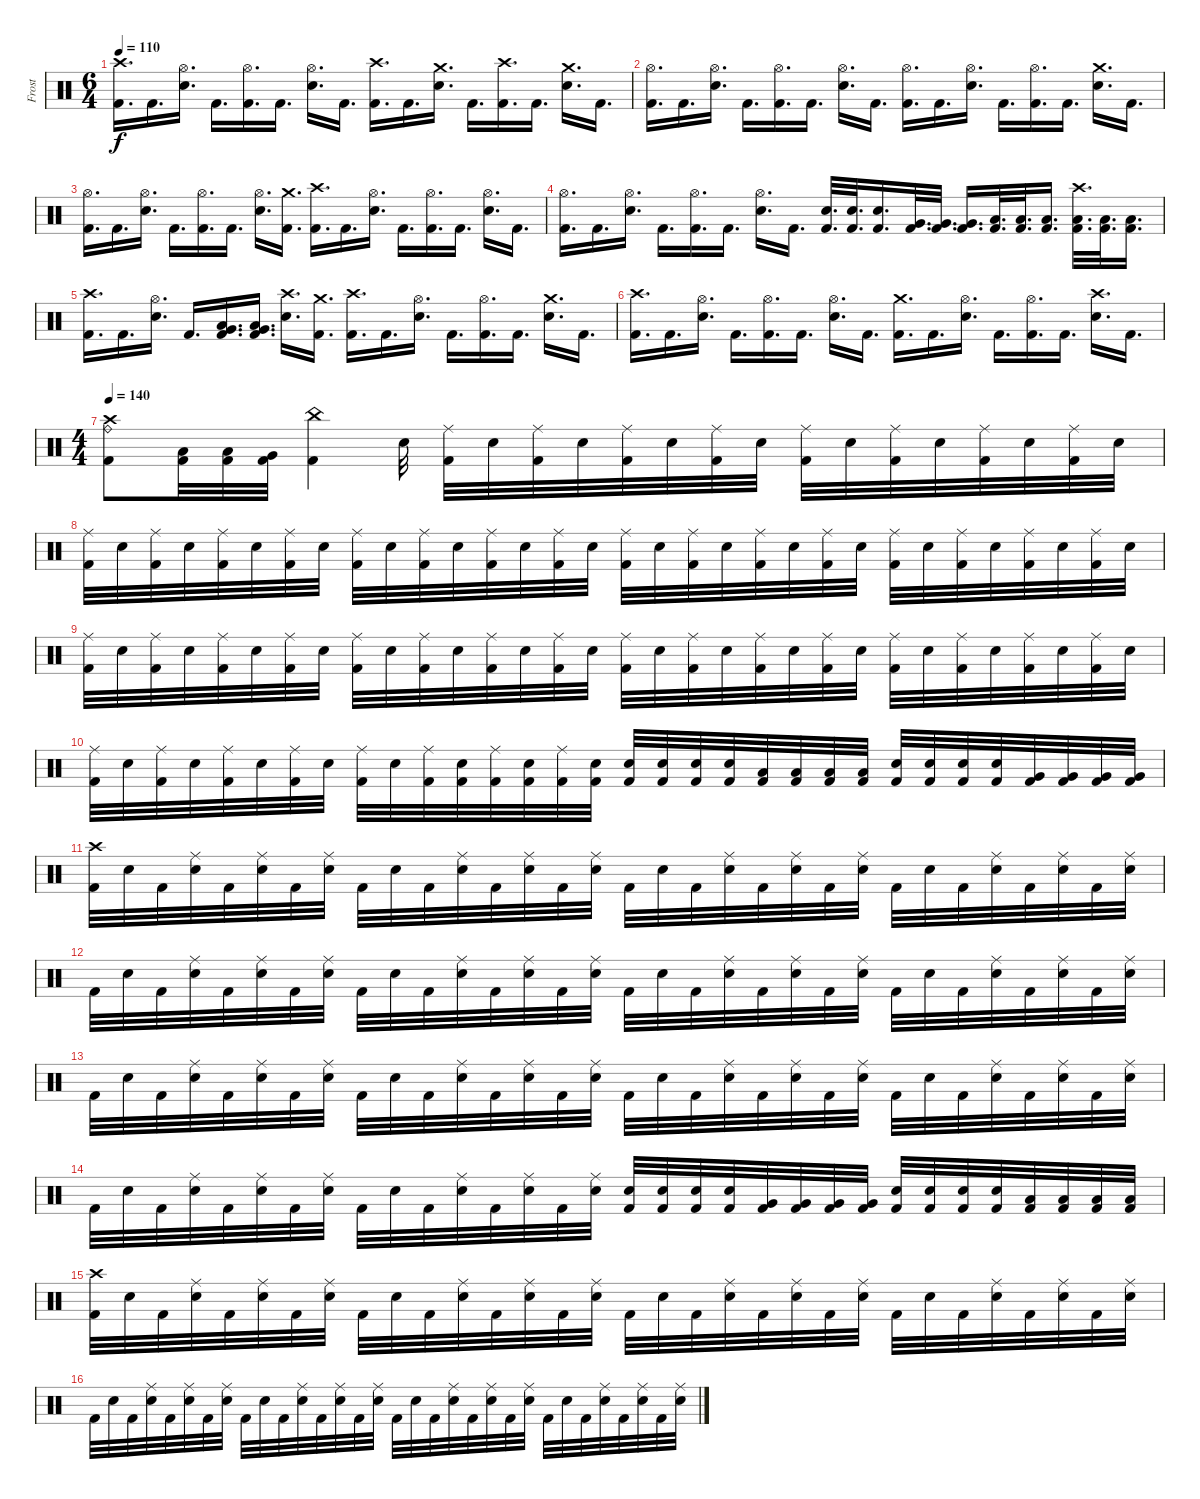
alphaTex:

\track ("Frost" "Frost") {instrument percussion}
\staff {score}
\articulation defaults
\ts (6 4)
\tempo 110
\clef neutral
\ks c
("Crash high (hit)" "Kick (hit) 2").16{d dy f} "Kick (hit) 2".16{d} ("Hi-Hat (open)" "Snare (hit) 2").16{d} "Kick (hit) 2".16{d} ("Hi-Hat (open)" "Kick (hit) 2").16{d} "Kick (hit) 2".16{d} ("Hi-Hat (open)" "Snare (hit) 2").16{d} "Kick (hit) 2".16{d} ("Crash high (hit)" "Kick (hit) 2").16{d} "Kick (hit) 2".16{d} ("Crash medium (hit)" "Snare (hit) 2").16{d} "Kick (hit) 2".16{d} ("Crash high (hit)" "Kick (hit) 2").16{d} "Kick (hit) 2".16{d} ("Crash medium (hit)" "Snare (hit) 2").16{d} "Kick (hit) 2".16{d} |
("Hi-Hat (open)" "Kick (hit) 2").16{d} "Kick (hit) 2".16{d} ("Hi-Hat (open)" "Snare (hit) 2").16{d} "Kick (hit) 2".16{d} ("Hi-Hat (open)" "Kick (hit) 2").16{d} "Kick (hit) 2".16{d} ("Hi-Hat (open)" "Snare (hit) 2").16{d} "Kick (hit) 2".16{d} ("Hi-Hat (open)" "Kick (hit) 2").16{d} "Kick (hit) 2".16{d} ("Hi-Hat (open)" "Snare (hit) 2").16{d} "Kick (hit) 2".16{d} ("Hi-Hat (open)" "Kick (hit) 2").16{d} "Kick (hit) 2".16{d} ("Crash medium (hit)" "Snare (hit) 2").16{d} "Kick (hit) 2".16{d} |
("Hi-Hat (open)" "Kick (hit) 2").16{d} "Kick (hit) 2".16{d} ("Hi-Hat (open)" "Snare (hit) 2").16{d} "Kick (hit) 2".16{d} ("Hi-Hat (open)" "Kick (hit) 2").16{d} "Kick (hit) 2".16{d} ("Hi-Hat (open)" "Snare (hit) 2").16{d} ("Crash medium (hit)" "Kick (hit) 2").16{d} ("Crash high (hit)" "Kick (hit) 2").16{d} "Kick (hit) 2".16{d} ("Hi-Hat (open)" "Snare (hit) 2").16{d} "Kick (hit) 2".16{d} ("Hi-Hat (open)" "Kick (hit) 2").16{d} "Kick (hit) 2".16{d} ("Hi-Hat (open)" "Snare (hit) 2").16{d} "Kick (hit) 2".16{d} |
("Hi-Hat (open)" "Kick (hit) 2").16{d} "Kick (hit) 2".16{d} ("Hi-Hat (open)" "Snare (hit) 2").16{d} "Kick (hit) 2".16{d} ("Hi-Hat (open)" "Kick (hit) 2").16{d} "Kick (hit) 2".16{d} ("Hi-Hat (open)" "Snare (hit) 2").16{d} "Kick (hit) 2".16{d} ("Snare (hit) 2" "Kick (hit) 2").32{d} ("Snare (hit) 2" "Kick (hit) 2").32{d} ("Snare (hit) 2" "Kick (hit) 2").16{d} ("Very Low Tom (hit)" "Kick (hit) 2").32{d} ("Very Low Tom (hit)" "Kick (hit) 2").32{d} ("Very Low Tom (hit)" "Kick (hit) 2").16{d} ("Low Tom (hit)" "Kick (hit) 2").32{d} ("Low Tom (hit)" "Kick (hit) 2").32{d} ("Low Tom (hit)" "Kick (hit) 2").16{d} ("Crash high (hit)" "Low Floor Tom (hit)" "Kick (hit) 2").32{d} ("Low Floor Tom (hit)" "Kick (hit) 2").32{d} ("Low Floor Tom (hit)" "Kick (hit) 2").16{d} |
("Crash high (hit)" "Kick (hit) 2").16{d} "Kick (hit) 2".16{d} ("Hi-Hat (open)" "Snare (hit) 2").16{d} "Kick (hit) 2".16{d} ("Low Tom (hit)" "Very Low Tom (hit)" "Kick (hit) 2").16{d} ("Low Tom (hit)" "Very Low Tom (hit)" "Kick (hit) 2").16{d} ("Crash high (hit)" "Snare (hit) 2").16{d} ("Crash medium (hit)" "Kick (hit) 2").16{d} ("Crash high (hit)" "Kick (hit) 2").16{d} "Kick (hit) 2".16{d} ("Hi-Hat (open)" "Snare (hit) 2").16{d} "Kick (hit) 2".16{d} ("Hi-Hat (open)" "Kick (hit) 2").16{d} "Kick (hit) 2".16{d} ("Crash medium (hit)" "Snare (hit) 2").16{d} "Kick (hit) 2".16{d} |
("Crash high (hit)" "Kick (hit) 2").16{d} "Kick (hit) 2".16{d} ("Hi-Hat (open)" "Snare (hit) 2").16{d} "Kick (hit) 2".16{d} ("Hi-Hat (open)" "Kick (hit) 2").16{d} "Kick (hit) 2".16{d} ("Hi-Hat (open)" "Snare (hit) 2").16{d} "Kick (hit) 2".16{d} ("Crash medium (hit)" "Kick (hit) 2").16{d} "Kick (hit) 2".16{d} ("Hi-Hat (open)" "Snare (hit) 2").16{d} "Kick (hit) 2".16{d} ("Hi-Hat (open)" "Kick (hit) 2").16{d} "Kick (hit) 2".16{d} ("Crash high (hit)" "Snare (hit) 2").16{d} "Kick (hit) 2".16{d} |
\ts (4 4)
\tempo 140
("Crash high (hit)" "Ride (bell)" "Kick (hit) 2").8 ("Low Tom (hit)" "Kick (hit) 2").32 ("Low Tom (hit)" "Kick (hit) 2").32 ("Very Low Tom (hit)" "Kick (hit) 2").32 ("China (hit)" "Kick (hit) 2").4 "Snare (hit) 2".32 ("Ride (middle)" "Kick (hit) 2").32 "Snare (hit) 2".32 ("Ride (middle)" "Kick (hit) 2").32 "Snare (hit) 2".32 ("Ride (middle)" "Kick (hit) 2").32 "Snare (hit) 2".32 ("Ride (middle)" "Kick (hit) 2").32 "Snare (hit) 2".32 ("Ride (middle)" "Kick (hit) 2").32 "Snare (hit) 2".32 ("Ride (middle)" "Kick (hit) 2").32 "Snare (hit) 2".32 ("Ride (middle)" "Kick (hit) 2").32 "Snare (hit) 2".32 ("Ride (middle)" "Kick (hit) 2").32 "Snare (hit) 2".32 |
("Ride (middle)" "Kick (hit) 2").32 "Snare (hit) 2".32 ("Ride (middle)" "Kick (hit) 2").32 "Snare (hit) 2".32 ("Ride (middle)" "Kick (hit) 2").32 "Snare (hit) 2".32 ("Ride (middle)" "Kick (hit) 2").32 "Snare (hit) 2".32 ("Ride (middle)" "Kick (hit) 2").32 "Snare (hit) 2".32 ("Ride (middle)" "Kick (hit) 2").32 "Snare (hit) 2".32 ("Ride (middle)" "Kick (hit) 2").32 "Snare (hit) 2".32 ("Ride (middle)" "Kick (hit) 2").32 "Snare (hit) 2".32 ("Ride (middle)" "Kick (hit) 2").32 "Snare (hit) 2".32 ("Ride (middle)" "Kick (hit) 2").32 "Snare (hit) 2".32 ("Ride (middle)" "Kick (hit) 2").32 "Snare (hit) 2".32 ("Ride (middle)" "Kick (hit) 2").32 "Snare (hit) 2".32 ("Ride (middle)" "Kick (hit) 2").32 "Snare (hit) 2".32 ("Ride (middle)" "Kick (hit) 2").32 "Snare (hit) 2".32 ("Ride (middle)" "Kick (hit) 2").32 "Snare (hit) 2".32 ("Ride (middle)" "Kick (hit) 2").32 "Snare (hit) 2".32 |
("Ride (middle)" "Kick (hit) 2").32 "Snare (hit) 2".32 ("Ride (middle)" "Kick (hit) 2").32 "Snare (hit) 2".32 ("Ride (middle)" "Kick (hit) 2").32 "Snare (hit) 2".32 ("Ride (middle)" "Kick (hit) 2").32 "Snare (hit) 2".32 ("Ride (middle)" "Kick (hit) 2").32 "Snare (hit) 2".32 ("Ride (middle)" "Kick (hit) 2").32 "Snare (hit) 2".32 ("Ride (middle)" "Kick (hit) 2").32 "Snare (hit) 2".32 ("Ride (middle)" "Kick (hit) 2").32 "Snare (hit) 2".32 ("Ride (middle)" "Kick (hit) 2").32 "Snare (hit) 2".32 ("Ride (middle)" "Kick (hit) 2").32 "Snare (hit) 2".32 ("Ride (middle)" "Kick (hit) 2").32 "Snare (hit) 2".32 ("Ride (middle)" "Kick (hit) 2").32 "Snare (hit) 2".32 ("Ride (middle)" "Kick (hit) 2").32 "Snare (hit) 2".32 ("Ride (middle)" "Kick (hit) 2").32 "Snare (hit) 2".32 ("Ride (middle)" "Kick (hit) 2").32 "Snare (hit) 2".32 ("Ride (middle)" "Kick (hit) 2").32 "Snare (hit) 2".32 |
("Ride (middle)" "Kick (hit) 2").32 "Snare (hit) 2".32 ("Ride (middle)" "Kick (hit) 2").32 "Snare (hit) 2".32 ("Ride (middle)" "Kick (hit) 2").32 "Snare (hit) 2".32 ("Ride (middle)" "Kick (hit) 2").32 "Snare (hit) 2".32 ("Ride (middle)" "Kick (hit) 2").32 "Snare (hit) 2".32 ("Ride (middle)" "Kick (hit) 2").32 ("Snare (hit) 2" "Kick (hit) 2").32 ("Ride (middle)" "Kick (hit) 2").32 ("Snare (hit) 2" "Kick (hit) 2").32 ("Ride (middle)" "Kick (hit) 2").32 ("Snare (hit) 2" "Kick (hit) 2").32 ("Snare (hit) 2" "Kick (hit) 2").32 ("Snare (hit) 2" "Kick (hit) 2").32 ("Snare (hit) 2" "Kick (hit) 2").32 ("Snare (hit) 2" "Kick (hit) 2").32 ("Low Floor Tom (hit)" "Kick (hit) 2").32 ("Low Floor Tom (hit)" "Kick (hit) 2").32 ("Low Floor Tom (hit)" "Kick (hit) 2").32 ("Low Floor Tom (hit)" "Kick (hit) 2").32 ("Snare (hit) 2" "Kick (hit) 2").32 ("Snare (hit) 2" "Kick (hit) 2").32 ("Snare (hit) 2" "Kick (hit) 2").32 ("Snare (hit) 2" "Kick (hit) 2").32 ("Very Low Tom (hit)" "Kick (hit) 2").32 ("Very Low Tom (hit)" "Kick (hit) 2").32 ("Very Low Tom (hit)" "Kick (hit) 2").32 ("Very Low Tom (hit)" "Kick (hit) 2").32 |
("Crash high (hit)" "Kick (hit) 2").32 "Snare (hit) 2".32 "Kick (hit) 2".32 ("Ride (middle)" "Snare (hit) 2").32 "Kick (hit) 2".32 ("Ride (middle)" "Snare (hit) 2").32 "Kick (hit) 2".32 ("Ride (middle)" "Snare (hit) 2").32 "Kick (hit) 2".32 "Snare (hit) 2".32 "Kick (hit) 2".32 ("Ride (middle)" "Snare (hit) 2").32 "Kick (hit) 2".32 ("Ride (middle)" "Snare (hit) 2").32 "Kick (hit) 2".32 ("Ride (middle)" "Snare (hit) 2").32 "Kick (hit) 2".32 "Snare (hit) 2".32 "Kick (hit) 2".32 ("Ride (middle)" "Snare (hit) 2").32 "Kick (hit) 2".32 ("Ride (middle)" "Snare (hit) 2").32 "Kick (hit) 2".32 ("Ride (middle)" "Snare (hit) 2").32 "Kick (hit) 2".32 "Snare (hit) 2".32 "Kick (hit) 2".32 ("Ride (middle)" "Snare (hit) 2").32 "Kick (hit) 2".32 ("Ride (middle)" "Snare (hit) 2").32 "Kick (hit) 2".32 ("Ride (middle)" "Snare (hit) 2").32 |
"Kick (hit) 2".32 "Snare (hit) 2".32 "Kick (hit) 2".32 ("Ride (middle)" "Snare (hit) 2").32 "Kick (hit) 2".32 ("Ride (middle)" "Snare (hit) 2").32 "Kick (hit) 2".32 ("Ride (middle)" "Snare (hit) 2").32 "Kick (hit) 2".32 "Snare (hit) 2".32 "Kick (hit) 2".32 ("Ride (middle)" "Snare (hit) 2").32 "Kick (hit) 2".32 ("Ride (middle)" "Snare (hit) 2").32 "Kick (hit) 2".32 ("Ride (middle)" "Snare (hit) 2").32 "Kick (hit) 2".32 "Snare (hit) 2".32 "Kick (hit) 2".32 ("Ride (middle)" "Snare (hit) 2").32 "Kick (hit) 2".32 ("Ride (middle)" "Snare (hit) 2").32 "Kick (hit) 2".32 ("Ride (middle)" "Snare (hit) 2").32 "Kick (hit) 2".32 "Snare (hit) 2".32 "Kick (hit) 2".32 ("Ride (middle)" "Snare (hit) 2").32 "Kick (hit) 2".32 ("Ride (middle)" "Snare (hit) 2").32 "Kick (hit) 2".32 ("Ride (middle)" "Snare (hit) 2").32 |
"Kick (hit) 2".32 "Snare (hit) 2".32 "Kick (hit) 2".32 ("Ride (middle)" "Snare (hit) 2").32 "Kick (hit) 2".32 ("Ride (middle)" "Snare (hit) 2").32 "Kick (hit) 2".32 ("Ride (middle)" "Snare (hit) 2").32 "Kick (hit) 2".32 "Snare (hit) 2".32 "Kick (hit) 2".32 ("Ride (middle)" "Snare (hit) 2").32 "Kick (hit) 2".32 ("Ride (middle)" "Snare (hit) 2").32 "Kick (hit) 2".32 ("Ride (middle)" "Snare (hit) 2").32 "Kick (hit) 2".32 "Snare (hit) 2".32 "Kick (hit) 2".32 ("Ride (middle)" "Snare (hit) 2").32 "Kick (hit) 2".32 ("Ride (middle)" "Snare (hit) 2").32 "Kick (hit) 2".32 ("Ride (middle)" "Snare (hit) 2").32 "Kick (hit) 2".32 "Snare (hit) 2".32 "Kick (hit) 2".32 ("Ride (middle)" "Snare (hit) 2").32 "Kick (hit) 2".32 ("Ride (middle)" "Snare (hit) 2").32 "Kick (hit) 2".32 ("Ride (middle)" "Snare (hit) 2").32 |
"Kick (hit) 2".32 "Snare (hit) 2".32 "Kick (hit) 2".32 ("Ride (middle)" "Snare (hit) 2").32 "Kick (hit) 2".32 ("Ride (middle)" "Snare (hit) 2").32 "Kick (hit) 2".32 ("Ride (middle)" "Snare (hit) 2").32 "Kick (hit) 2".32 "Snare (hit) 2".32 "Kick (hit) 2".32 ("Ride (middle)" "Snare (hit) 2").32 "Kick (hit) 2".32 ("Ride (middle)" "Snare (hit) 2").32 "Kick (hit) 2".32 ("Ride (middle)" "Snare (hit) 2").32 ("Snare (hit) 2" "Kick (hit) 2").32 ("Snare (hit) 2" "Kick (hit) 2").32 ("Snare (hit) 2" "Kick (hit) 2").32 ("Snare (hit) 2" "Kick (hit) 2").32 ("Very Low Tom (hit)" "Kick (hit) 2").32 ("Very Low Tom (hit)" "Kick (hit) 2").32 ("Very Low Tom (hit)" "Kick (hit) 2").32 ("Very Low Tom (hit)" "Kick (hit) 2").32 ("Snare (hit) 2" "Kick (hit) 2").32 ("Snare (hit) 2" "Kick (hit) 2").32 ("Snare (hit) 2" "Kick (hit) 2").32 ("Snare (hit) 2" "Kick (hit) 2").32 ("Low Floor Tom (hit)" "Kick (hit) 2").32 ("Low Floor Tom (hit)" "Kick (hit) 2").32 ("Low Floor Tom (hit)" "Kick (hit) 2").32 ("Low Floor Tom (hit)" "Kick (hit) 2").32 |
("Crash high (hit)" "Kick (hit) 2").32 "Snare (hit) 2".32 "Kick (hit) 2".32 ("Ride (middle)" "Snare (hit) 2").32 "Kick (hit) 2".32 ("Ride (middle)" "Snare (hit) 2").32 "Kick (hit) 2".32 ("Ride (middle)" "Snare (hit) 2").32 "Kick (hit) 2".32 "Snare (hit) 2".32 "Kick (hit) 2".32 ("Ride (middle)" "Snare (hit) 2").32 "Kick (hit) 2".32 ("Ride (middle)" "Snare (hit) 2").32 "Kick (hit) 2".32 ("Ride (middle)" "Snare (hit) 2").32 "Kick (hit) 2".32 "Snare (hit) 2".32 "Kick (hit) 2".32 ("Ride (middle)" "Snare (hit) 2").32 "Kick (hit) 2".32 ("Ride (middle)" "Snare (hit) 2").32 "Kick (hit) 2".32 ("Ride (middle)" "Snare (hit) 2").32 "Kick (hit) 2".32 "Snare (hit) 2".32 "Kick (hit) 2".32 ("Ride (middle)" "Snare (hit) 2").32 "Kick (hit) 2".32 ("Ride (middle)" "Snare (hit) 2").32 "Kick (hit) 2".32 ("Ride (middle)" "Snare (hit) 2").32 |
"Kick (hit) 2".32 "Snare (hit) 2".32 "Kick (hit) 2".32 ("Ride (middle)" "Snare (hit) 2").32 "Kick (hit) 2".32 ("Ride (middle)" "Snare (hit) 2").32 "Kick (hit) 2".32 ("Ride (middle)" "Snare (hit) 2").32 "Kick (hit) 2".32 "Snare (hit) 2".32 "Kick (hit) 2".32 ("Ride (middle)" "Snare (hit) 2").32 "Kick (hit) 2".32 ("Ride (middle)" "Snare (hit) 2").32 "Kick (hit) 2".32 ("Ride (middle)" "Snare (hit) 2").32 "Kick (hit) 2".32 "Snare (hit) 2".32 "Kick (hit) 2".32 ("Ride (middle)" "Snare (hit) 2").32 "Kick (hit) 2".32 ("Ride (middle)" "Snare (hit) 2").32 "Kick (hit) 2".32 ("Ride (middle)" "Snare (hit) 2").32 "Kick (hit) 2".32 "Snare (hit) 2".32 "Kick (hit) 2".32 ("Ride (middle)" "Snare (hit) 2").32 "Kick (hit) 2".32 ("Ride (middle)" "Snare (hit) 2").32 "Kick (hit) 2".32 ("Ride (middle)" "Snare (hit) 2").32
